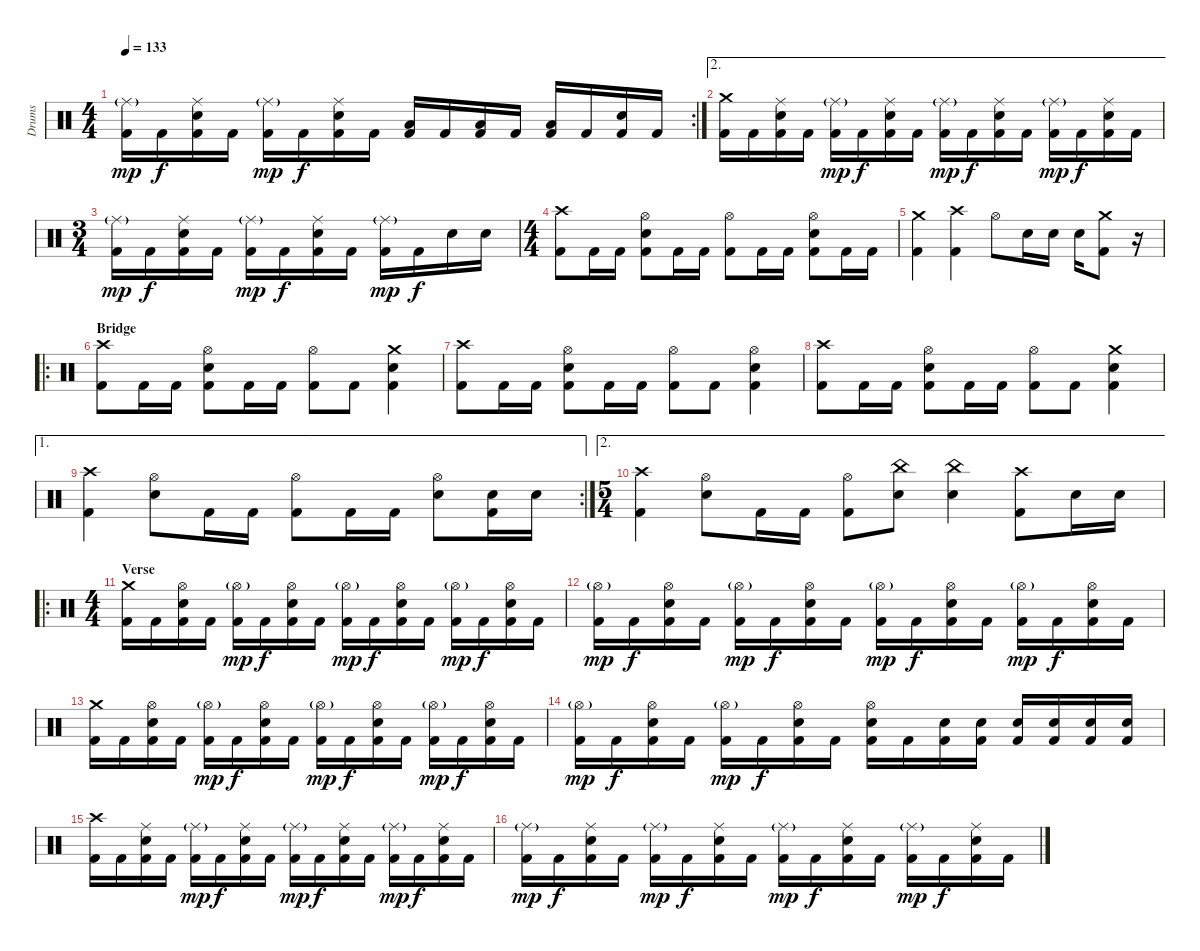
\track ("Drums" "Drums") {instrument percussion}
\staff {score}
\articulation defaults
\rc 2
\ts (4 4)
\tempo 133
\clef neutral
\ks c
("Ride (middle)"{g} "Kick (hit) 2").16{dy mp} "Kick (hit) 2".16{dy f} ("Ride (middle)" "Electric Snare (hit)" "Kick (hit) 2").16 "Kick (hit) 2".16 ("Ride (middle)"{g} "Kick (hit) 2").16{dy mp} "Kick (hit) 2".16{dy f} ("Ride (middle)" "Electric Snare (hit)" "Kick (hit) 2").16 "Kick (hit) 2".16 ("Low Tom (hit)" "Kick (hit) 2").16 "Kick (hit) 2".16 ("Low Tom (hit)" "Kick (hit) 2").16 "Kick (hit) 2".16 ("Low Tom (hit)" "Kick (hit) 2").16 "Kick (hit) 2".16 ("Electric Snare (hit)" "Kick (hit) 2").16 "Kick (hit) 2".16 |
\ae 2
("Crash medium (hit)" "Kick (hit) 2").16 "Kick (hit) 2".16 ("Ride (middle)" "Electric Snare (hit)" "Kick (hit) 2").16 "Kick (hit) 2".16 ("Ride (middle)"{g} "Kick (hit) 2").16{dy mp} "Kick (hit) 2".16{dy f} ("Ride (middle)" "Electric Snare (hit)" "Kick (hit) 2").16 "Kick (hit) 2".16 ("Ride (middle)"{g} "Kick (hit) 2").16{dy mp} "Kick (hit) 2".16{dy f} ("Ride (middle)" "Electric Snare (hit)" "Kick (hit) 2").16 "Kick (hit) 2".16 ("Ride (middle)"{g} "Kick (hit) 2").16{dy mp} "Kick (hit) 2".16{dy f} ("Ride (middle)" "Electric Snare (hit)" "Kick (hit) 2").16 "Kick (hit) 2".16 |
\ts (3 4)
("Ride (middle)"{g} "Kick (hit) 2").16{dy mp} "Kick (hit) 2".16{dy f} ("Ride (middle)" "Electric Snare (hit)" "Kick (hit) 2").16 "Kick (hit) 2".16 ("Ride (middle)"{g} "Kick (hit) 2").16{dy mp} "Kick (hit) 2".16{dy f} ("Ride (middle)" "Electric Snare (hit)" "Kick (hit) 2").16 "Kick (hit) 2".16 ("Ride (middle)"{g} "Kick (hit) 2").16{dy mp} "Kick (hit) 2".16{dy f} "Electric Snare (hit)".16 "Electric Snare (hit)".16 |
\ts (4 4)
("Crash high (hit)" "Kick (hit) 2").8 "Kick (hit) 2".16 "Kick (hit) 2".16 ("Hi-Hat (open)" "Electric Snare (hit)" "Kick (hit) 2").8 "Kick (hit) 2".16 "Kick (hit) 2".16 ("Hi-Hat (open)" "Kick (hit) 2").8 "Kick (hit) 2".16 "Kick (hit) 2".16 ("Hi-Hat (open)" "Electric Snare (hit)" "Kick (hit) 2").8 "Kick (hit) 2".16 "Kick (hit) 2".16 |
("Crash medium (hit)" "Kick (hit) 2").4 ("Crash high (hit)" "Kick (hit) 2").4 "Hi-Hat (open)".8 "Electric Snare (hit)".16 "Electric Snare (hit)".16 "Electric Snare (hit)".16 ("Crash medium (hit)" "Kick (hit) 2").8 r.16 |
\ro
\section ("" "Bridge")
("Crash high (hit)" "Kick (hit) 2").8 "Kick (hit) 2".16 "Kick (hit) 2".16 ("Hi-Hat (open)" "Electric Snare (hit)" "Kick (hit) 2").8 "Kick (hit) 2".16 "Kick (hit) 2".16 ("Hi-Hat (open)" "Kick (hit) 2").8 "Kick (hit) 2".8 ("Crash medium (hit)" "Electric Snare (hit)" "Kick (hit) 2").4 |
("Crash high (hit)" "Kick (hit) 2").8 "Kick (hit) 2".16 "Kick (hit) 2".16 ("Hi-Hat (open)" "Electric Snare (hit)" "Kick (hit) 2").8 "Kick (hit) 2".16 "Kick (hit) 2".16 ("Hi-Hat (open)" "Kick (hit) 2").8 "Kick (hit) 2".8 ("Hi-Hat (open)" "Electric Snare (hit)" "Kick (hit) 2").4 |
("Crash high (hit)" "Kick (hit) 2").8 "Kick (hit) 2".16 "Kick (hit) 2".16 ("Hi-Hat (open)" "Electric Snare (hit)" "Kick (hit) 2").8 "Kick (hit) 2".16 "Kick (hit) 2".16 ("Hi-Hat (open)" "Kick (hit) 2").8 "Kick (hit) 2".8 ("Crash medium (hit)" "Electric Snare (hit)" "Kick (hit) 2").4 |
\ae 1
\rc 2
("Crash high (hit)" "Kick (hit) 2").4 ("Hi-Hat (open)" "Electric Snare (hit)").8 "Kick (hit) 2".16 "Kick (hit) 2".16 ("Hi-Hat (open)" "Kick (hit) 2").8 "Kick (hit) 2".16 "Kick (hit) 2".16 ("Hi-Hat (open)" "Electric Snare (hit)").8 ("Electric Snare (hit)" "Kick (hit) 2").16 "Electric Snare (hit)".16 |
\ae 2
\ts (5 4)
("Crash high (hit)" "Kick (hit) 2").4 ("Hi-Hat (open)" "Electric Snare (hit)").8 "Kick (hit) 2".16 "Kick (hit) 2".16 ("Hi-Hat (open)" "Kick (hit) 2").8 ("China (hit)" "Electric Snare (hit)").8 ("China (hit)" "Electric Snare (hit)").4 ("Crash high (hit)" "Kick (hit) 2").8 "Electric Snare (hit)".16 "Electric Snare (hit)".16 |
\ro
\ts (4 4)
\section ("" "Verse")
("Crash medium (hit)" "Kick (hit) 2").16 "Kick (hit) 2".16 ("Hi-Hat (open)" "Electric Snare (hit)" "Kick (hit) 2").16 "Kick (hit) 2".16 ("Hi-Hat (open)"{g} "Kick (hit) 2").16{dy mp} "Kick (hit) 2".16{dy f} ("Hi-Hat (open)" "Electric Snare (hit)" "Kick (hit) 2").16 "Kick (hit) 2".16 ("Hi-Hat (open)"{g} "Kick (hit) 2").16{dy mp} "Kick (hit) 2".16{dy f} ("Hi-Hat (open)" "Electric Snare (hit)" "Kick (hit) 2").16 "Kick (hit) 2".16 ("Hi-Hat (open)"{g} "Kick (hit) 2").16{dy mp} "Kick (hit) 2".16{dy f} ("Hi-Hat (open)" "Electric Snare (hit)" "Kick (hit) 2").16 "Kick (hit) 2".16 |
("Hi-Hat (open)"{g} "Kick (hit) 2").16{dy mp} "Kick (hit) 2".16{dy f} ("Hi-Hat (open)" "Electric Snare (hit)" "Kick (hit) 2").16 "Kick (hit) 2".16 ("Hi-Hat (open)"{g} "Kick (hit) 2").16{dy mp} "Kick (hit) 2".16{dy f} ("Hi-Hat (open)" "Electric Snare (hit)" "Kick (hit) 2").16 "Kick (hit) 2".16 ("Hi-Hat (open)"{g} "Kick (hit) 2").16{dy mp} "Kick (hit) 2".16{dy f} ("Hi-Hat (open)" "Electric Snare (hit)" "Kick (hit) 2").16 "Kick (hit) 2".16 ("Hi-Hat (open)"{g} "Kick (hit) 2").16{dy mp} "Kick (hit) 2".16{dy f} ("Hi-Hat (open)" "Electric Snare (hit)" "Kick (hit) 2").16 "Kick (hit) 2".16 |
("Crash medium (hit)" "Kick (hit) 2").16 "Kick (hit) 2".16 ("Hi-Hat (open)" "Electric Snare (hit)" "Kick (hit) 2").16 "Kick (hit) 2".16 ("Hi-Hat (open)"{g} "Kick (hit) 2").16{dy mp} "Kick (hit) 2".16{dy f} ("Hi-Hat (open)" "Electric Snare (hit)" "Kick (hit) 2").16 "Kick (hit) 2".16 ("Hi-Hat (open)"{g} "Kick (hit) 2").16{dy mp} "Kick (hit) 2".16{dy f} ("Hi-Hat (open)" "Electric Snare (hit)" "Kick (hit) 2").16 "Kick (hit) 2".16 ("Hi-Hat (open)"{g} "Kick (hit) 2").16{dy mp} "Kick (hit) 2".16{dy f} ("Hi-Hat (open)" "Electric Snare (hit)" "Kick (hit) 2").16 "Kick (hit) 2".16 |
("Hi-Hat (open)"{g} "Kick (hit) 2").16{dy mp} "Kick (hit) 2".16{dy f} ("Hi-Hat (open)" "Electric Snare (hit)" "Kick (hit) 2").16 "Kick (hit) 2".16 ("Hi-Hat (open)"{g} "Kick (hit) 2").16{dy mp} "Kick (hit) 2".16{dy f} ("Hi-Hat (open)" "Electric Snare (hit)" "Kick (hit) 2").16 "Kick (hit) 2".16 ("Hi-Hat (open)" "Electric Snare (hit)" "Kick (hit) 2").16 "Kick (hit) 2".16 ("Electric Snare (hit)" "Kick (hit) 2").16 ("Electric Snare (hit)" "Kick (hit) 2").16 ("Electric Snare (hit)" "Kick (hit) 2").16 ("Electric Snare (hit)" "Kick (hit) 2").16 ("Electric Snare (hit)" "Kick (hit) 2").16 ("Electric Snare (hit)" "Kick (hit) 2").16 |
("Crash high (hit)" "Kick (hit) 2").16 "Kick (hit) 2".16 ("Ride (middle)" "Electric Snare (hit)" "Kick (hit) 2").16 "Kick (hit) 2".16 ("Ride (middle)"{g} "Kick (hit) 2").16{dy mp} "Kick (hit) 2".16{dy f} ("Ride (middle)" "Electric Snare (hit)" "Kick (hit) 2").16 "Kick (hit) 2".16 ("Ride (middle)"{g} "Kick (hit) 2").16{dy mp} "Kick (hit) 2".16{dy f} ("Ride (middle)" "Electric Snare (hit)" "Kick (hit) 2").16 "Kick (hit) 2".16 ("Ride (middle)"{g} "Kick (hit) 2").16{dy mp} "Kick (hit) 2".16{dy f} ("Ride (middle)" "Electric Snare (hit)" "Kick (hit) 2").16 "Kick (hit) 2".16 |
("Ride (middle)"{g} "Kick (hit) 2").16{dy mp} "Kick (hit) 2".16{dy f} ("Ride (middle)" "Electric Snare (hit)" "Kick (hit) 2").16 "Kick (hit) 2".16 ("Ride (middle)"{g} "Kick (hit) 2").16{dy mp} "Kick (hit) 2".16{dy f} ("Ride (middle)" "Electric Snare (hit)" "Kick (hit) 2").16 "Kick (hit) 2".16 ("Ride (middle)"{g} "Kick (hit) 2").16{dy mp} "Kick (hit) 2".16{dy f} ("Ride (middle)" "Electric Snare (hit)" "Kick (hit) 2").16 "Kick (hit) 2".16 ("Ride (middle)"{g} "Kick (hit) 2").16{dy mp} "Kick (hit) 2".16{dy f} ("Ride (middle)" "Electric Snare (hit)" "Kick (hit) 2").16 "Kick (hit) 2".16
